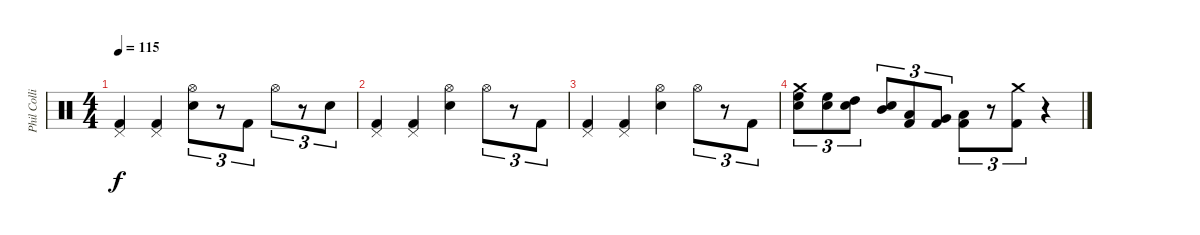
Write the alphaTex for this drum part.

\track ("Phil Collins (drums)" "Phil Colli") {instrument percussion}
\staff {score}
\articulation defaults
\ts (4 4)
\tempo 115
\clef neutral
\ks c
("Pedal Hi-Hat (hit)" "Kick (hit) 2").4{dy f volume 7} ("Pedal Hi-Hat (hit)" "Kick (hit) 2").4 ("Hi-Hat (open)" "Electric Snare (hit)").8{tu (3 2) volume 6} r.8{tu (3 2)} "Kick (hit) 2".8{tu (3 2)} "Hi-Hat (open)".8{tu (3 2)} r.8{tu (3 2)} "Electric Snare (hit)".8{tu (3 2)} |
("Pedal Hi-Hat (hit)" "Kick (hit) 2").4{volume 5} ("Pedal Hi-Hat (hit)" "Kick (hit) 2").4 ("Hi-Hat (open)" "Electric Snare (hit)").4{volume 4} "Hi-Hat (open)".8{tu (3 2)} r.8{tu (3 2)} "Kick (hit) 2".8{tu (3 2)} |
("Pedal Hi-Hat (hit)" "Kick (hit) 2").4{volume 3} ("Pedal Hi-Hat (hit)" "Kick (hit) 2").4 ("Hi-Hat (open)" "Electric Snare (hit)").4{volume 2} "Hi-Hat (open)".8{tu (3 2)} r.8{tu (3 2)} "Kick (hit) 2".8{tu (3 2)} |
("Crash medium (hit)" "High Floor Tom (hit)" "Electric Snare (hit)").8{tu (3 2) volume 1} ("High Floor Tom (hit)" "Electric Snare (hit)").8{tu (3 2)} ("High Tom (hit)" "Electric Snare (hit)").8{tu (3 2)} ("Mid Tom (hit)" "Electric Snare (hit)").8{tu (3 2)} ("Low Tom (hit)" "Kick (hit) 2").8{tu (3 2)} ("Very Low Tom (hit)" "Kick (hit) 2").8{tu (3 2)} ("Low Floor Tom (hit)" "Kick (hit) 2").8{tu (3 2) volume 0} r.8{tu (3 2)} ("Crash medium (hit)" "Kick (hit) 2").8{tu (3 2)} r.4
